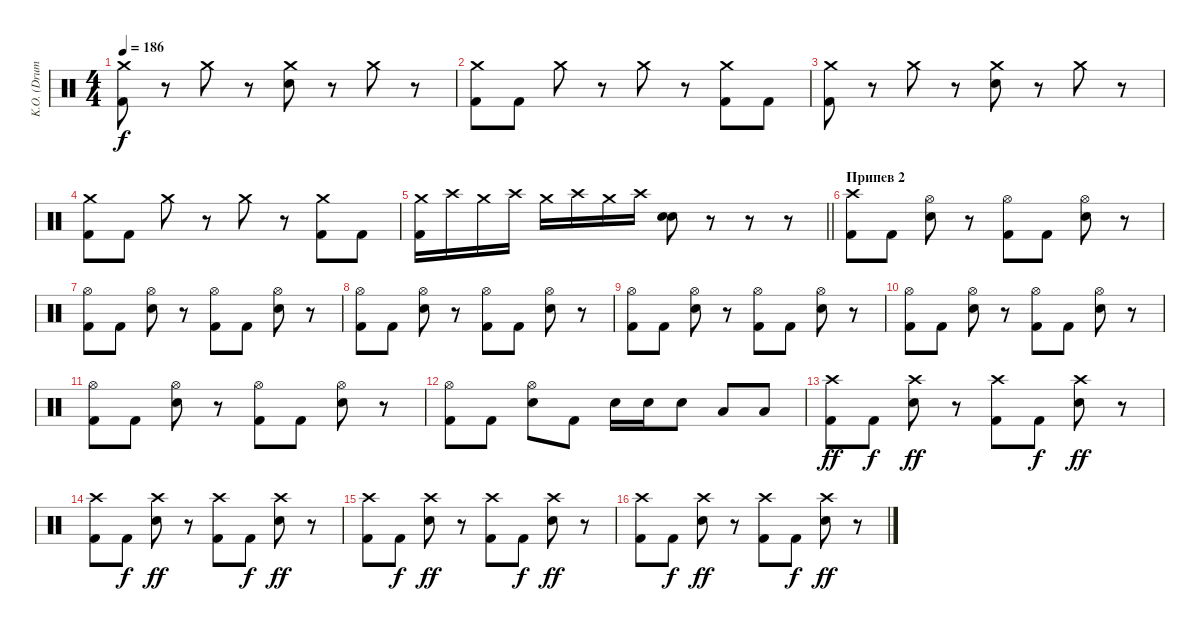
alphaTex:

\track ("K.O. (Drums)" "K.O. (Drum") {instrument percussion}
\staff {score}
\articulation defaults
\ts (4 4)
\tempo 186
\clef neutral
\ks c
("Crash medium (hit)" "Kick (hit) 2").8{dy f} r.8 "Crash medium (hit)".8 r.8 ("Crash medium (hit)" "Electric Snare (hit)").8 r.8 "Crash medium (hit)".8 r.8 |
("Crash medium (hit)" "Kick (hit) 2").8 "Kick (hit) 2".8 "Crash medium (hit)".8 r.8 "Crash medium (hit)".8 r.8 ("Crash medium (hit)" "Kick (hit) 2").8 "Kick (hit) 2".8 |
("Crash medium (hit)" "Kick (hit) 2").8 r.8 "Crash medium (hit)".8 r.8 ("Crash medium (hit)" "Electric Snare (hit)").8 r.8 "Crash medium (hit)".8 r.8 |
("Crash medium (hit)" "Kick (hit) 2").8 "Kick (hit) 2".8 "Crash medium (hit)".8 r.8 "Crash medium (hit)".8 r.8 ("Crash medium (hit)" "Kick (hit) 2").8 "Kick (hit) 2".8 |
\barLineRight lightlight
("Crash medium (hit)" "Kick (hit) 2").16 "Crash high (hit)".16 "Crash medium (hit)".16 "Crash high (hit)".16 "Crash medium (hit)".16 "Crash high (hit)".16 "Crash medium (hit)".16 "Crash high (hit)".16 ("Electric Snare (hit)" "Electric Snare (hit)").8 r.8 r.8 r.8 |
\section ("" "Припев 2")
("Crash high (hit)" "Kick (hit) 2").8 "Kick (hit) 2".8 ("Hi-Hat (open)" "Electric Snare (hit)").8 r.8 ("Hi-Hat (open)" "Kick (hit) 2").8 "Kick (hit) 2".8 ("Hi-Hat (open)" "Electric Snare (hit)").8 r.8 |
("Hi-Hat (open)" "Kick (hit) 2").8 "Kick (hit) 2".8 ("Hi-Hat (open)" "Electric Snare (hit)").8 r.8 ("Hi-Hat (open)" "Kick (hit) 2").8 "Kick (hit) 2".8 ("Hi-Hat (open)" "Electric Snare (hit)").8 r.8 |
("Hi-Hat (open)" "Kick (hit) 2").8 "Kick (hit) 2".8 ("Hi-Hat (open)" "Electric Snare (hit)").8 r.8 ("Hi-Hat (open)" "Kick (hit) 2").8 "Kick (hit) 2".8 ("Hi-Hat (open)" "Electric Snare (hit)").8 r.8 |
("Hi-Hat (open)" "Kick (hit) 2").8 "Kick (hit) 2".8 ("Hi-Hat (open)" "Electric Snare (hit)").8 r.8 ("Hi-Hat (open)" "Kick (hit) 2").8 "Kick (hit) 2".8 ("Hi-Hat (open)" "Electric Snare (hit)").8 r.8 |
("Hi-Hat (open)" "Kick (hit) 2").8 "Kick (hit) 2".8 ("Hi-Hat (open)" "Electric Snare (hit)").8 r.8 ("Hi-Hat (open)" "Kick (hit) 2").8 "Kick (hit) 2".8 ("Hi-Hat (open)" "Electric Snare (hit)").8 r.8 |
("Hi-Hat (open)" "Kick (hit) 2").8 "Kick (hit) 2".8 ("Hi-Hat (open)" "Electric Snare (hit)").8 r.8 ("Hi-Hat (open)" "Kick (hit) 2").8 "Kick (hit) 2".8 ("Hi-Hat (open)" "Electric Snare (hit)").8 r.8 |
("Hi-Hat (open)" "Kick (hit) 2").8 "Kick (hit) 2".8 ("Hi-Hat (open)" "Electric Snare (hit)").8 "Kick (hit) 2".8 "Electric Snare (hit)".16 "Electric Snare (hit)".16 "Electric Snare (hit)".8 "Low Tom (hit)".8 "Low Tom (hit)".8 |
("Crash high (hit)" "Kick (hit) 2").8{dy ff} "Kick (hit) 2".8{dy f} ("Crash high (hit)" "Electric Snare (hit)").8{dy ff} r.8 ("Crash high (hit)" "Kick (hit) 2").8 "Kick (hit) 2".8{dy f} ("Crash high (hit)" "Electric Snare (hit)").8{dy ff} r.8 |
("Crash high (hit)" "Kick (hit) 2").8 "Kick (hit) 2".8{dy f} ("Crash high (hit)" "Electric Snare (hit)").8{dy ff} r.8 ("Crash high (hit)" "Kick (hit) 2").8 "Kick (hit) 2".8{dy f} ("Crash high (hit)" "Electric Snare (hit)").8{dy ff} r.8 |
("Crash high (hit)" "Kick (hit) 2").8 "Kick (hit) 2".8{dy f} ("Crash high (hit)" "Electric Snare (hit)").8{dy ff} r.8 ("Crash high (hit)" "Kick (hit) 2").8 "Kick (hit) 2".8{dy f} ("Crash high (hit)" "Electric Snare (hit)").8{dy ff} r.8 |
("Crash high (hit)" "Kick (hit) 2").8 "Kick (hit) 2".8{dy f} ("Crash high (hit)" "Electric Snare (hit)").8{dy ff} r.8 ("Crash high (hit)" "Kick (hit) 2").8 "Kick (hit) 2".8{dy f} ("Crash high (hit)" "Electric Snare (hit)").8{dy ff} r.8
